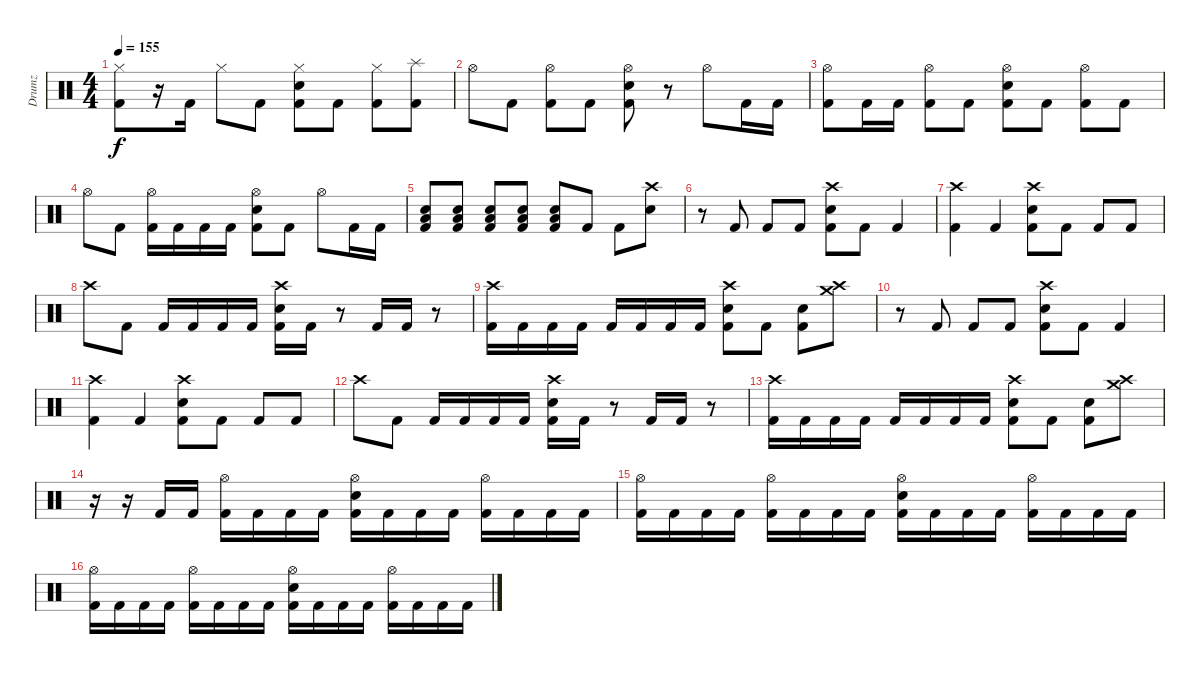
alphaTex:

\track ("Drumz" "Drumz") {instrument percussion}
\staff {score}
\articulation defaults
\ts (4 4)
\tempo 155
\clef neutral
\ks c
("Hi-Hat (closed)" "Kick (hit) 2").8{dy f} r.16 "Kick (hit) 2".16 "Hi-Hat (closed)".8 "Kick (hit) 2".8 ("Kick (hit) 2" "Electric Snare (hit)" "Hi-Hat (closed)").8 "Kick (hit) 2".8 ("Hi-Hat (closed)" "Kick (hit) 2").8 ("Kick (hit) 2" "Splash (hit)").8 |
"Hi-Hat (open)".8 "Kick (hit) 2".8 ("Kick (hit) 2" "Hi-Hat (open)").8 "Kick (hit) 2".8 ("Kick (hit) 2" "Electric Snare (hit)" "Hi-Hat (open)").8 r.8 "Hi-Hat (open)".8 "Kick (hit) 2".16 "Kick (hit) 2".16 |
("Hi-Hat (open)" "Kick (hit) 2").8 "Kick (hit) 2".16 "Kick (hit) 2".16 ("Kick (hit) 2" "Hi-Hat (open)").8 "Kick (hit) 2".8 ("Hi-Hat (open)" "Electric Snare (hit)" "Kick (hit) 2").8 "Kick (hit) 2".8 ("Hi-Hat (open)" "Kick (hit) 2").8 "Kick (hit) 2".8 |
"Hi-Hat (open)".8 "Kick (hit) 2".8 ("Kick (hit) 2" "Hi-Hat (open)").16 "Kick (hit) 2".16 "Kick (hit) 2".16 "Kick (hit) 2".16 ("Kick (hit) 2" "Electric Snare (hit)" "Hi-Hat (open)").8 "Kick (hit) 2".8 "Hi-Hat (open)".8 "Kick (hit) 2".16 "Kick (hit) 2".16 |
("Kick (hit) 2" "Electric Snare (hit)" "Low Floor Tom (hit)").8{volume 10} ("Kick (hit) 2" "Electric Snare (hit)" "Low Floor Tom (hit)").8{volume 15} ("Kick (hit) 2" "Electric Snare (hit)" "Low Floor Tom (hit)").8 ("Kick (hit) 2" "Electric Snare (hit)" "Low Floor Tom (hit)").8 ("Kick (hit) 2" "Electric Snare (hit)" "Low Floor Tom (hit)").8 "Kick (hit) 2".8 "Kick (hit) 2".8 ("Electric Snare (hit)" "Crash high (hit)").8 |
r.8 "Kick (hit) 2".8 "Kick (hit) 2".8 "Kick (hit) 2".8 ("Kick (hit) 2" "Electric Snare (hit)" "Crash high (hit)").8 "Kick (hit) 2".8 "Kick (hit) 2".4 |
("Crash high (hit)" "Kick (hit) 2").4 "Kick (hit) 2".4 ("Kick (hit) 2" "Crash high (hit)" "Electric Snare (hit)").8 "Kick (hit) 2".8 "Kick (hit) 2".8 "Kick (hit) 2".8 |
"Crash high (hit)".8 "Kick (hit) 2".8 "Kick (hit) 2".16 "Kick (hit) 2".16 "Kick (hit) 2".16 "Kick (hit) 2".16 ("Kick (hit) 2" "Crash high (hit)" "Electric Snare (hit)").16 "Kick (hit) 2".16 r.8 "Kick (hit) 2".16 "Kick (hit) 2".16 r.8 |
("Kick (hit) 2" "Crash high (hit)").16 "Kick (hit) 2".16 "Kick (hit) 2".16 "Kick (hit) 2".16 "Kick (hit) 2".16 "Kick (hit) 2".16 "Kick (hit) 2".16 "Kick (hit) 2".16 ("Kick (hit) 2" "Crash high (hit)" "Electric Snare (hit)").8 "Kick (hit) 2".8 ("Kick (hit) 2" "Electric Snare (hit)").8 ("Crash high (hit)" "Crash medium (hit)").8 |
r.8 "Kick (hit) 2".8 "Kick (hit) 2".8 "Kick (hit) 2".8 ("Kick (hit) 2" "Electric Snare (hit)" "Crash high (hit)").8 "Kick (hit) 2".8 "Kick (hit) 2".4 |
("Crash high (hit)" "Kick (hit) 2").4 "Kick (hit) 2".4 ("Kick (hit) 2" "Crash high (hit)" "Electric Snare (hit)").8 "Kick (hit) 2".8 "Kick (hit) 2".8 "Kick (hit) 2".8 |
"Crash high (hit)".8 "Kick (hit) 2".8 "Kick (hit) 2".16 "Kick (hit) 2".16 "Kick (hit) 2".16 "Kick (hit) 2".16 ("Kick (hit) 2" "Crash high (hit)" "Electric Snare (hit)").16 "Kick (hit) 2".16 r.8 "Kick (hit) 2".16 "Kick (hit) 2".16 r.8 |
("Kick (hit) 2" "Crash high (hit)").16 "Kick (hit) 2".16 "Kick (hit) 2".16 "Kick (hit) 2".16 "Kick (hit) 2".16 "Kick (hit) 2".16 "Kick (hit) 2".16 "Kick (hit) 2".16 ("Kick (hit) 2" "Crash high (hit)" "Electric Snare (hit)").8 "Kick (hit) 2".8 ("Kick (hit) 2" "Electric Snare (hit)").8 ("Crash high (hit)" "Crash medium (hit)").8 |
r.16 r.16 "Kick (hit) 2".16 "Kick (hit) 2".16 ("Kick (hit) 2" "Hi-Hat (open)").16 "Kick (hit) 2".16 "Kick (hit) 2".16 "Kick (hit) 2".16 ("Kick (hit) 2" "Hi-Hat (open)" "Electric Snare (hit)").16 "Kick (hit) 2".16 "Kick (hit) 2".16 "Kick (hit) 2".16 ("Kick (hit) 2" "Hi-Hat (open)").16 "Kick (hit) 2".16 "Kick (hit) 2".16 "Kick (hit) 2".16 |
("Kick (hit) 2" "Hi-Hat (open)").16 "Kick (hit) 2".16 "Kick (hit) 2".16 "Kick (hit) 2".16 ("Kick (hit) 2" "Hi-Hat (open)").16 "Kick (hit) 2".16 "Kick (hit) 2".16 "Kick (hit) 2".16 ("Kick (hit) 2" "Hi-Hat (open)" "Electric Snare (hit)").16 "Kick (hit) 2".16 "Kick (hit) 2".16 "Kick (hit) 2".16 ("Kick (hit) 2" "Hi-Hat (open)").16 "Kick (hit) 2".16 "Kick (hit) 2".16 "Kick (hit) 2".16 |
("Kick (hit) 2" "Hi-Hat (open)").16 "Kick (hit) 2".16 "Kick (hit) 2".16 "Kick (hit) 2".16 ("Kick (hit) 2" "Hi-Hat (open)").16 "Kick (hit) 2".16 "Kick (hit) 2".16 "Kick (hit) 2".16 ("Kick (hit) 2" "Hi-Hat (open)" "Electric Snare (hit)").16 "Kick (hit) 2".16 "Kick (hit) 2".16 "Kick (hit) 2".16 ("Kick (hit) 2" "Hi-Hat (open)").16 "Kick (hit) 2".16 "Kick (hit) 2".16 "Kick (hit) 2".16
